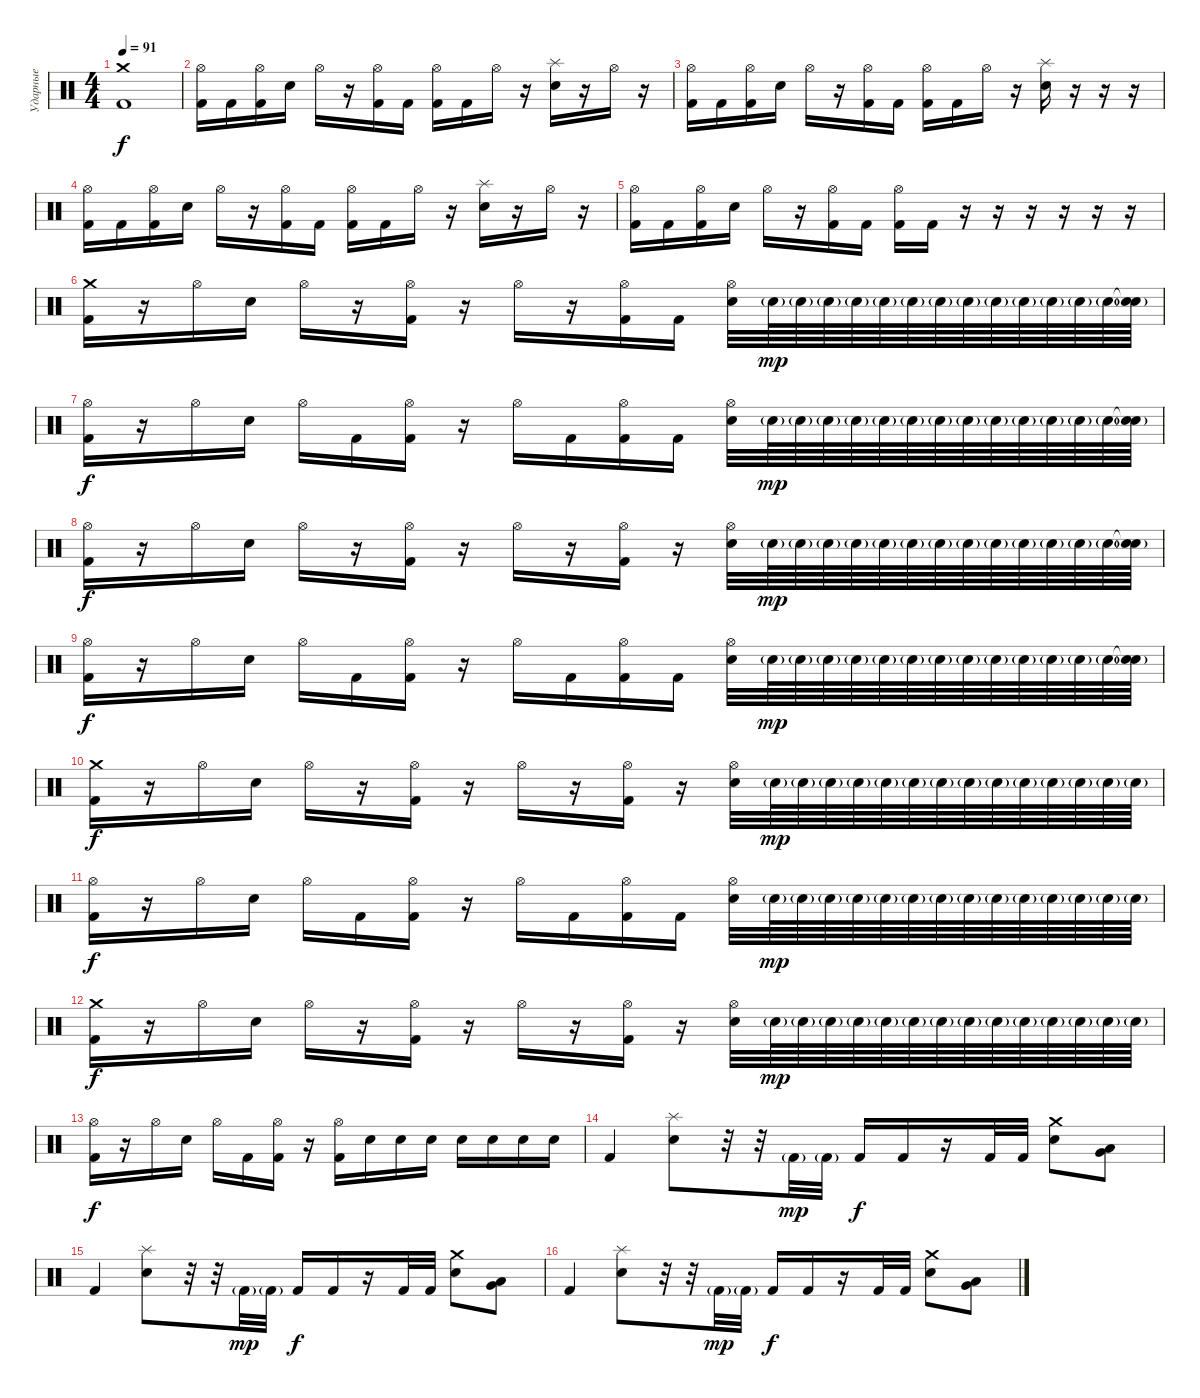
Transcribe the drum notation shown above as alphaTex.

\track ("Ударные" "Ударные") {instrument percussion}
\staff {score}
\articulation defaults
\ts (4 4)
\tempo 91
\clef neutral
\ks c
("Crash medium (hit)" "Kick (hit) 2").1{dy f} |
("Hi-Hat (open)" "Kick (hit) 2").16 "Kick (hit) 2".16 ("Hi-Hat (open)" "Kick (hit) 2").16 "Snare (hit) 2".16 "Hi-Hat (open)".16 r.16 ("Hi-Hat (open)" "Kick (hit) 2").16 "Kick (hit) 2".16 ("Hi-Hat (open)" "Kick (hit) 2").16 "Kick (hit) 2".16 "Hi-Hat (open)".16 r.16 ("Splash (hit)" "Snare (hit) 2").16 r.16 "Hi-Hat (open)".16 r.16 |
("Hi-Hat (open)" "Kick (hit) 2").16 "Kick (hit) 2".16 ("Hi-Hat (open)" "Kick (hit) 2").16 "Snare (hit) 2".16 "Hi-Hat (open)".16 r.16 ("Hi-Hat (open)" "Kick (hit) 2").16 "Kick (hit) 2".16 ("Hi-Hat (open)" "Kick (hit) 2").16 "Kick (hit) 2".16 "Hi-Hat (open)".16 r.16 ("Splash (hit)" "Snare (hit) 2").16 r.16 r.16 r.16 |
("Hi-Hat (open)" "Kick (hit) 2").16 "Kick (hit) 2".16 ("Hi-Hat (open)" "Kick (hit) 2").16 "Snare (hit) 2".16 "Hi-Hat (open)".16 r.16 ("Hi-Hat (open)" "Kick (hit) 2").16 "Kick (hit) 2".16 ("Hi-Hat (open)" "Kick (hit) 2").16 "Kick (hit) 2".16 "Hi-Hat (open)".16 r.16 ("Splash (hit)" "Snare (hit) 2").16 r.16 "Hi-Hat (open)".16 r.16 |
("Hi-Hat (open)" "Kick (hit) 2").16 "Kick (hit) 2".16 ("Hi-Hat (open)" "Kick (hit) 2").16 "Snare (hit) 2".16 "Hi-Hat (open)".16 r.16 ("Hi-Hat (open)" "Kick (hit) 2").16 "Kick (hit) 2".16 ("Hi-Hat (open)" "Kick (hit) 2").16 "Kick (hit) 2".16 r.16 r.16 r.16 r.16 r.16 r.16 |
("Crash medium (hit)" "Kick (hit) 2").16 r.16 "Hi-Hat (open)".16 "Snare (hit) 2".16 "Hi-Hat (open)".16 r.16 ("Hi-Hat (open)" "Kick (hit) 2").16 r.16 "Hi-Hat (open)".16 r.16 ("Hi-Hat (open)" "Kick (hit) 2").16 "Kick (hit) 2".16 ("Hi-Hat (open)" "Snare (hit) 2").32 "Snare (hit) 2"{g}.64{dy mp} "Snare (hit) 2"{g}.64 "Snare (hit) 2"{g}.64 "Snare (hit) 2"{g}.64 "Snare (hit) 2"{g}.64 "Snare (hit) 2"{g}.64 "Snare (hit) 2"{g}.64 "Snare (hit) 2"{g}.64 "Snare (hit) 2"{g}.64 "Snare (hit) 2"{g}.64 "Snare (hit) 2"{g}.64 "Snare (hit) 2"{g}.64 "Snare (hit) 2"{g}.64 ("Snare (hit)"{t} "Snare (hit) 2"{g}).64 |
("Hi-Hat (open)" "Kick (hit) 2").16{dy f} r.16 "Hi-Hat (open)".16 "Snare (hit) 2".16 "Hi-Hat (open)".16 "Kick (hit) 2".16 ("Hi-Hat (open)" "Kick (hit) 2").16 r.16 "Hi-Hat (open)".16 "Kick (hit) 2".16 ("Hi-Hat (open)" "Kick (hit) 2").16 "Kick (hit) 2".16 ("Hi-Hat (open)" "Snare (hit) 2").32 "Snare (hit) 2"{g}.64{dy mp} "Snare (hit) 2"{g}.64 "Snare (hit) 2"{g}.64 "Snare (hit) 2"{g}.64 "Snare (hit) 2"{g}.64 "Snare (hit) 2"{g}.64 "Snare (hit) 2"{g}.64 "Snare (hit) 2"{g}.64 "Snare (hit) 2"{g}.64 "Snare (hit) 2"{g}.64 "Snare (hit) 2"{g}.64 "Snare (hit) 2"{g}.64 "Snare (hit) 2"{g}.64 ("Snare (hit)"{t} "Snare (hit) 2"{g}).64 |
("Hi-Hat (open)" "Kick (hit) 2").16{dy f} r.16 "Hi-Hat (open)".16 "Snare (hit) 2".16 "Hi-Hat (open)".16 r.16 ("Hi-Hat (open)" "Kick (hit) 2").16 r.16 "Hi-Hat (open)".16 r.16 ("Hi-Hat (open)" "Kick (hit) 2").16 r.16 ("Hi-Hat (open)" "Snare (hit) 2").32 "Snare (hit) 2"{g}.64{dy mp} "Snare (hit) 2"{g}.64 "Snare (hit) 2"{g}.64 "Snare (hit) 2"{g}.64 "Snare (hit) 2"{g}.64 "Snare (hit) 2"{g}.64 "Snare (hit) 2"{g}.64 "Snare (hit) 2"{g}.64 "Snare (hit) 2"{g}.64 "Snare (hit) 2"{g}.64 "Snare (hit) 2"{g}.64 "Snare (hit) 2"{g}.64 "Snare (hit) 2"{g}.64 ("Snare (hit)"{t} "Snare (hit) 2"{g}).64 |
("Hi-Hat (open)" "Kick (hit) 2").16{dy f} r.16 "Hi-Hat (open)".16 "Snare (hit) 2".16 "Hi-Hat (open)".16 "Kick (hit) 2".16 ("Hi-Hat (open)" "Kick (hit) 2").16 r.16 "Hi-Hat (open)".16 "Kick (hit) 2".16 ("Hi-Hat (open)" "Kick (hit) 2").16 "Kick (hit) 2".16 ("Hi-Hat (open)" "Snare (hit) 2").32 "Snare (hit) 2"{g}.64{dy mp} "Snare (hit) 2"{g}.64 "Snare (hit) 2"{g}.64 "Snare (hit) 2"{g}.64 "Snare (hit) 2"{g}.64 "Snare (hit) 2"{g}.64 "Snare (hit) 2"{g}.64 "Snare (hit) 2"{g}.64 "Snare (hit) 2"{g}.64 "Snare (hit) 2"{g}.64 "Snare (hit) 2"{g}.64 "Snare (hit) 2"{g}.64 "Snare (hit) 2"{g}.64 ("Snare (hit)"{t} "Snare (hit) 2"{g}).64 |
("Crash medium (hit)" "Kick (hit) 2").16{dy f} r.16 "Hi-Hat (open)".16 "Snare (hit) 2".16 "Hi-Hat (open)".16 r.16 ("Hi-Hat (open)" "Kick (hit) 2").16 r.16 "Hi-Hat (open)".16 r.16 ("Hi-Hat (open)" "Kick (hit) 2").16 r.16 ("Hi-Hat (open)" "Snare (hit) 2").32 "Snare (hit) 2"{g}.64{dy mp} "Snare (hit) 2"{g}.64 "Snare (hit) 2"{g}.64 "Snare (hit) 2"{g}.64 "Snare (hit) 2"{g}.64 "Snare (hit) 2"{g}.64 "Snare (hit) 2"{g}.64 "Snare (hit) 2"{g}.64 "Snare (hit) 2"{g}.64 "Snare (hit) 2"{g}.64 "Snare (hit) 2"{g}.64 "Snare (hit) 2"{g}.64 "Snare (hit) 2"{g}.64 "Snare (hit) 2"{g}.64 |
("Hi-Hat (open)" "Kick (hit) 2").16{dy f} r.16 "Hi-Hat (open)".16 "Snare (hit) 2".16 "Hi-Hat (open)".16 "Kick (hit) 2".16 ("Hi-Hat (open)" "Kick (hit) 2").16 r.16 "Hi-Hat (open)".16 "Kick (hit) 2".16 ("Hi-Hat (open)" "Kick (hit) 2").16 "Kick (hit) 2".16 ("Hi-Hat (open)" "Snare (hit) 2").32 "Snare (hit) 2"{g}.64{dy mp} "Snare (hit) 2"{g}.64 "Snare (hit) 2"{g}.64 "Snare (hit) 2"{g}.64 "Snare (hit) 2"{g}.64 "Snare (hit) 2"{g}.64 "Snare (hit) 2"{g}.64 "Snare (hit) 2"{g}.64 "Snare (hit) 2"{g}.64 "Snare (hit) 2"{g}.64 "Snare (hit) 2"{g}.64 "Snare (hit) 2"{g}.64 "Snare (hit) 2"{g}.64 "Snare (hit) 2"{g}.64 |
("Crash medium (hit)" "Kick (hit) 2").16{dy f} r.16 "Hi-Hat (open)".16 "Snare (hit) 2".16 "Hi-Hat (open)".16 r.16 ("Hi-Hat (open)" "Kick (hit) 2").16 r.16 "Hi-Hat (open)".16 r.16 ("Hi-Hat (open)" "Kick (hit) 2").16 r.16 ("Hi-Hat (open)" "Snare (hit) 2").32 "Snare (hit) 2"{g}.64{dy mp} "Snare (hit) 2"{g}.64 "Snare (hit) 2"{g}.64 "Snare (hit) 2"{g}.64 "Snare (hit) 2"{g}.64 "Snare (hit) 2"{g}.64 "Snare (hit) 2"{g}.64 "Snare (hit) 2"{g}.64 "Snare (hit) 2"{g}.64 "Snare (hit) 2"{g}.64 "Snare (hit) 2"{g}.64 "Snare (hit) 2"{g}.64 "Snare (hit) 2"{g}.64 "Snare (hit) 2"{g}.64 |
("Hi-Hat (open)" "Kick (hit) 2").16{dy f} r.16 "Hi-Hat (open)".16 "Snare (hit) 2".16 "Hi-Hat (open)".16 "Kick (hit) 2".16 ("Hi-Hat (open)" "Kick (hit) 2").16 r.16 ("Hi-Hat (open)" "Kick (hit) 2").16 "Snare (hit) 2".16 "Snare (hit) 2".16 "Snare (hit) 2".16 "Snare (hit) 2".16 "Snare (hit) 2".16 "Snare (hit) 2".16 "Snare (hit) 2".16 |
"Kick (hit) 2".4 ("Splash (hit)" "Snare (hit) 2").8 r.32 r.32 "Kick (hit) 2"{g}.32{dy mp} "Kick (hit) 2"{g}.32 "Kick (hit) 2".16{dy f} "Kick (hit) 2".16 r.16 "Kick (hit) 2".32 "Kick (hit) 2".32 ("Crash medium (hit)" "Snare (hit) 2").8 ("Low Tom (hit)" "Very Low Tom (hit)").8{bd 30} |
"Kick (hit) 2".4 ("Splash (hit)" "Snare (hit) 2").8 r.32 r.32 "Kick (hit) 2"{g}.32{dy mp} "Kick (hit) 2"{g}.32 "Kick (hit) 2".16{dy f} "Kick (hit) 2".16 r.16 "Kick (hit) 2".32 "Kick (hit) 2".32 ("Crash medium (hit)" "Snare (hit) 2").8 ("Low Tom (hit)" "Very Low Tom (hit)").8{bd 30} |
"Kick (hit) 2".4 ("Splash (hit)" "Snare (hit) 2").8 r.32 r.32 "Kick (hit) 2"{g}.32{dy mp} "Kick (hit) 2"{g}.32 "Kick (hit) 2".16{dy f} "Kick (hit) 2".16 r.16 "Kick (hit) 2".32 "Kick (hit) 2".32 ("Crash medium (hit)" "Snare (hit) 2").8 ("Low Tom (hit)" "Very Low Tom (hit)").8{bd 30}
